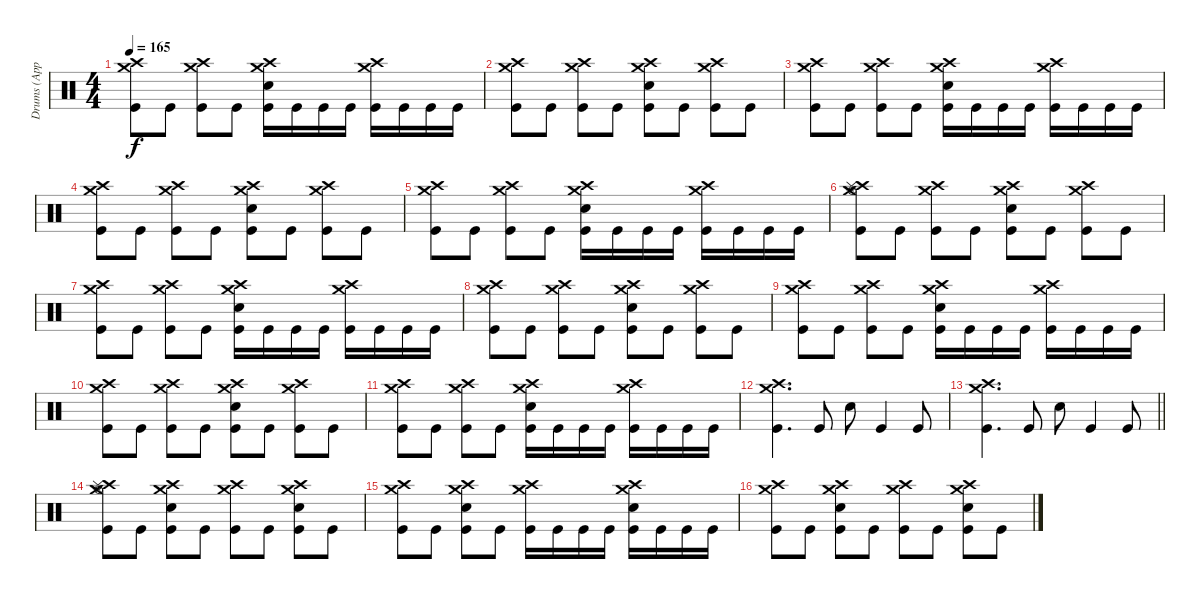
\track ("Drums (Approx.)" "Drums (App") {instrument percussion}
\staff {score}
\articulation defaults
\ts (4 4)
\tempo 165
\clef neutral
\ks c
("Crash medium (hit)" "Crash high (hit)" "Kick (hit)").8{dy f} "Kick (hit)".8 ("Crash medium (hit)" "Crash high (hit)" "Kick (hit)").8 "Kick (hit)".8 ("Crash medium (hit)" "Crash high (hit)" "Electric Snare (hit)" "Kick (hit)").16 "Kick (hit)".16 "Kick (hit)".16 "Kick (hit)".16 ("Crash medium (hit)" "Crash high (hit)" "Kick (hit)").16 "Kick (hit)".16 "Kick (hit)".16 "Kick (hit)".16 |
("Crash medium (hit)" "Crash high (hit)" "Kick (hit)").8 "Kick (hit)".8 ("Crash medium (hit)" "Crash high (hit)" "Kick (hit)").8 "Kick (hit)".8 ("Crash medium (hit)" "Crash high (hit)" "Electric Snare (hit)" "Kick (hit)").8 "Kick (hit)".8 ("Crash medium (hit)" "Crash high (hit)" "Kick (hit)").8 "Kick (hit)".8 |
("Crash medium (hit)" "Crash high (hit)" "Kick (hit)").8 "Kick (hit)".8 ("Crash medium (hit)" "Crash high (hit)" "Kick (hit)").8 "Kick (hit)".8 ("Crash medium (hit)" "Crash high (hit)" "Electric Snare (hit)" "Kick (hit)").16 "Kick (hit)".16 "Kick (hit)".16 "Kick (hit)".16 ("Crash medium (hit)" "Crash high (hit)" "Kick (hit)").16 "Kick (hit)".16 "Kick (hit)".16 "Kick (hit)".16 |
("Crash medium (hit)" "Crash high (hit)" "Kick (hit)").8 "Kick (hit)".8 ("Crash medium (hit)" "Crash high (hit)" "Kick (hit)").8 "Kick (hit)".8 ("Crash medium (hit)" "Crash high (hit)" "Electric Snare (hit)" "Kick (hit)").8 "Kick (hit)".8 ("Crash medium (hit)" "Crash high (hit)" "Kick (hit)").8 "Kick (hit)".8 |
("Crash medium (hit)" "Crash high (hit)" "Kick (hit)").8 "Kick (hit)".8 ("Crash medium (hit)" "Crash high (hit)" "Kick (hit)").8 "Kick (hit)".8 ("Crash medium (hit)" "Crash high (hit)" "Electric Snare (hit)" "Kick (hit)").16 "Kick (hit)".16 "Kick (hit)".16 "Kick (hit)".16 ("Crash medium (hit)" "Crash high (hit)" "Kick (hit)").16 "Kick (hit)".16 "Kick (hit)".16 "Kick (hit)".16 |
("Hi-Hat (open)" "Crash medium (hit)" "Crash high (hit)" "Splash (hit)" "Kick (hit)").8 "Kick (hit)".8 ("Crash medium (hit)" "Crash high (hit)" "Kick (hit)").8 "Kick (hit)".8 ("Crash medium (hit)" "Crash high (hit)" "Electric Snare (hit)" "Kick (hit)").8 "Kick (hit)".8 ("Crash medium (hit)" "Crash high (hit)" "Kick (hit)").8 "Kick (hit)".8 |
("Crash medium (hit)" "Crash high (hit)" "Kick (hit)").8 "Kick (hit)".8 ("Crash medium (hit)" "Crash high (hit)" "Kick (hit)").8 "Kick (hit)".8 ("Crash medium (hit)" "Crash high (hit)" "Electric Snare (hit)" "Kick (hit)").16 "Kick (hit)".16 "Kick (hit)".16 "Kick (hit)".16 ("Crash medium (hit)" "Crash high (hit)" "Kick (hit)").16 "Kick (hit)".16 "Kick (hit)".16 "Kick (hit)".16 |
("Crash medium (hit)" "Crash high (hit)" "Kick (hit)").8 "Kick (hit)".8 ("Crash medium (hit)" "Crash high (hit)" "Kick (hit)").8 "Kick (hit)".8 ("Crash medium (hit)" "Crash high (hit)" "Electric Snare (hit)" "Kick (hit)").8 "Kick (hit)".8 ("Crash medium (hit)" "Crash high (hit)" "Kick (hit)").8 "Kick (hit)".8 |
("Crash medium (hit)" "Crash high (hit)" "Kick (hit)").8 "Kick (hit)".8 ("Crash medium (hit)" "Crash high (hit)" "Kick (hit)").8 "Kick (hit)".8 ("Crash medium (hit)" "Crash high (hit)" "Electric Snare (hit)" "Kick (hit)").16 "Kick (hit)".16 "Kick (hit)".16 "Kick (hit)".16 ("Crash medium (hit)" "Crash high (hit)" "Kick (hit)").16 "Kick (hit)".16 "Kick (hit)".16 "Kick (hit)".16 |
("Crash medium (hit)" "Crash high (hit)" "Kick (hit)").8 "Kick (hit)".8 ("Crash medium (hit)" "Crash high (hit)" "Kick (hit)").8 "Kick (hit)".8 ("Crash medium (hit)" "Crash high (hit)" "Electric Snare (hit)" "Kick (hit)").8 "Kick (hit)".8 ("Crash medium (hit)" "Crash high (hit)" "Kick (hit)").8 "Kick (hit)".8 |
("Crash medium (hit)" "Crash high (hit)" "Kick (hit)").8 "Kick (hit)".8 ("Crash medium (hit)" "Crash high (hit)" "Kick (hit)").8 "Kick (hit)".8 ("Crash medium (hit)" "Crash high (hit)" "Electric Snare (hit)" "Kick (hit)").16 "Kick (hit)".16 "Kick (hit)".16 "Kick (hit)".16 ("Crash medium (hit)" "Crash high (hit)" "Kick (hit)").16 "Kick (hit)".16 "Kick (hit)".16 "Kick (hit)".16 |
("Crash medium (hit)" "Crash high (hit)" "Kick (hit)").4{d} "Kick (hit)".8 "Electric Snare (hit)".8 "Kick (hit)".4 "Kick (hit)".8 |
\barLineRight lightlight
("Crash medium (hit)" "Crash high (hit)" "Kick (hit)").4{d} "Kick (hit)".8 "Electric Snare (hit)".8 "Kick (hit)".4 "Kick (hit)".8 |
\section ("" "")
("Hi-Hat (open)" "Crash medium (hit)" "Crash high (hit)" "Splash (hit)" "Kick (hit)").8 "Kick (hit)".8 ("Crash medium (hit)" "Crash high (hit)" "Electric Snare (hit)" "Kick (hit)").8 "Kick (hit)".8 ("Crash medium (hit)" "Crash high (hit)" "Kick (hit)").8 "Kick (hit)".8 ("Crash medium (hit)" "Crash high (hit)" "Electric Snare (hit)" "Kick (hit)").8 "Kick (hit)".8 |
("Crash medium (hit)" "Crash high (hit)" "Kick (hit)").8 "Kick (hit)".8 ("Crash medium (hit)" "Crash high (hit)" "Electric Snare (hit)" "Kick (hit)").8 "Kick (hit)".8 ("Crash medium (hit)" "Crash high (hit)" "Kick (hit)").16 "Kick (hit)".16 "Kick (hit)".16 "Kick (hit)".16 ("Crash medium (hit)" "Crash high (hit)" "Electric Snare (hit)" "Kick (hit)").16 "Kick (hit)".16 "Kick (hit)".16 "Kick (hit)".16 |
("Crash medium (hit)" "Crash high (hit)" "Kick (hit)").8 "Kick (hit)".8 ("Crash medium (hit)" "Crash high (hit)" "Electric Snare (hit)" "Kick (hit)").8 "Kick (hit)".8 ("Crash medium (hit)" "Crash high (hit)" "Kick (hit)").8 "Kick (hit)".8 ("Crash medium (hit)" "Crash high (hit)" "Electric Snare (hit)" "Kick (hit)").8 "Kick (hit)".8
